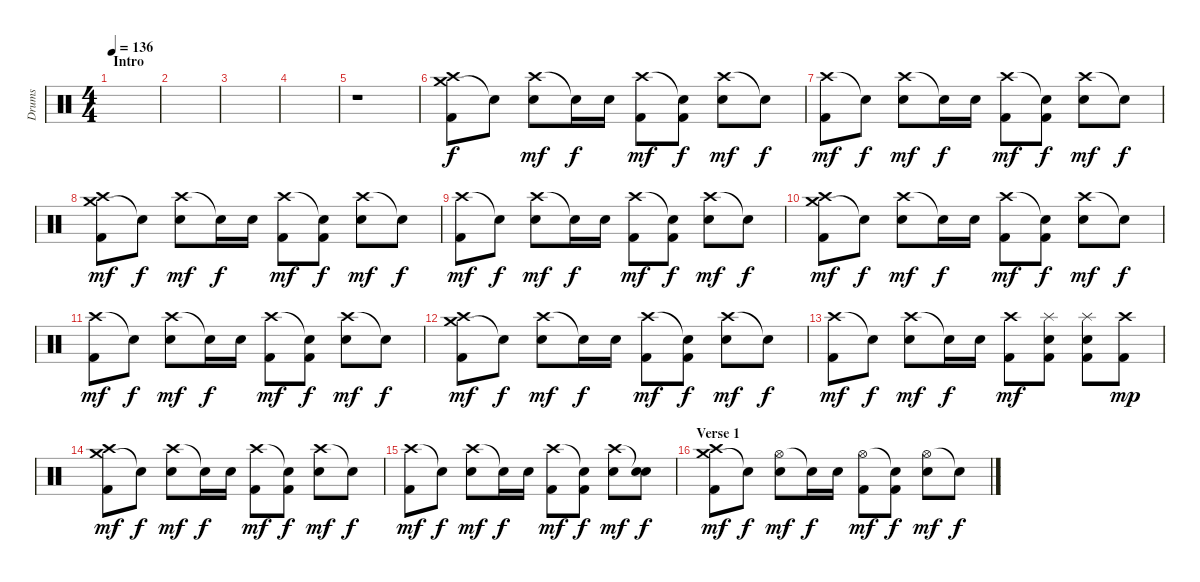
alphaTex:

\track ("Drums" "Drums") {instrument percussion}
\staff {score}
\articulation defaults
\ts (4 4)
\section ("" "Intro")
\tempo 136
\clef neutral
\ks c
|
|
|
|
r.1 |
("Crash medium (hit)" "Crash high (hit)" "Kick (hit) 2").8 "Snare (hit)"{t}.8{dy f} ("Crash high (hit)" "Electric Snare (hit)").8{dy mf} "Snare (hit)"{t}.16{dy f} "Electric Snare (hit)".16 ("Crash high (hit)" "Kick (hit) 2").8{dy mf} ("Snare (hit)"{t} "Kick (hit) 2").8{dy f} ("Crash high (hit)" "Electric Snare (hit)").8{dy mf} "Snare (hit)"{t}.8{dy f} |
("Crash high (hit)" "Kick (hit) 2").8{dy mf} "Snare (hit)"{t}.8{dy f} ("Crash high (hit)" "Electric Snare (hit)").8{dy mf} "Snare (hit)"{t}.16{dy f} "Electric Snare (hit)".16 ("Crash high (hit)" "Kick (hit) 2").8{dy mf} ("Snare (hit)"{t} "Kick (hit) 2").8{dy f} ("Crash high (hit)" "Electric Snare (hit)").8{dy mf} "Snare (hit)"{t}.8{dy f} |
("Crash medium (hit)" "Crash high (hit)" "Kick (hit) 2").8{dy mf} "Snare (hit)"{t}.8{dy f} ("Crash high (hit)" "Electric Snare (hit)").8{dy mf} "Snare (hit)"{t}.16{dy f} "Electric Snare (hit)".16 ("Crash high (hit)" "Kick (hit) 2").8{dy mf} ("Snare (hit)"{t} "Kick (hit) 2").8{dy f} ("Crash high (hit)" "Electric Snare (hit)").8{dy mf} "Snare (hit)"{t}.8{dy f} |
("Crash high (hit)" "Kick (hit) 2").8{dy mf} "Snare (hit)"{t}.8{dy f} ("Crash high (hit)" "Electric Snare (hit)").8{dy mf} "Snare (hit)"{t}.16{dy f} "Electric Snare (hit)".16 ("Crash high (hit)" "Kick (hit) 2").8{dy mf} ("Snare (hit)"{t} "Kick (hit) 2").8{dy f} ("Crash high (hit)" "Electric Snare (hit)").8{dy mf} "Snare (hit)"{t}.8{dy f} |
("Crash medium (hit)" "Crash high (hit)" "Kick (hit) 2").8{dy mf} "Snare (hit)"{t}.8{dy f} ("Crash high (hit)" "Electric Snare (hit)").8{dy mf} "Snare (hit)"{t}.16{dy f} "Electric Snare (hit)".16 ("Crash high (hit)" "Kick (hit) 2").8{dy mf} ("Snare (hit)"{t} "Kick (hit) 2").8{dy f} ("Crash high (hit)" "Electric Snare (hit)").8{dy mf} "Snare (hit)"{t}.8{dy f} |
("Crash high (hit)" "Kick (hit) 2").8{dy mf} "Snare (hit)"{t}.8{dy f} ("Crash high (hit)" "Electric Snare (hit)").8{dy mf} "Snare (hit)"{t}.16{dy f} "Electric Snare (hit)".16 ("Crash high (hit)" "Kick (hit) 2").8{dy mf} ("Snare (hit)"{t} "Kick (hit) 2").8{dy f} ("Crash high (hit)" "Electric Snare (hit)").8{dy mf} "Snare (hit)"{t}.8{dy f} |
("Crash medium (hit)" "Crash high (hit)" "Kick (hit) 2").8{dy mf} "Snare (hit)"{t}.8{dy f} ("Crash high (hit)" "Electric Snare (hit)").8{dy mf} "Snare (hit)"{t}.16{dy f} "Electric Snare (hit)".16 ("Crash high (hit)" "Kick (hit) 2").8{dy mf} ("Snare (hit)"{t} "Kick (hit) 2").8{dy f} ("Crash high (hit)" "Electric Snare (hit)").8{dy mf} "Snare (hit)"{t}.8{dy f} |
("Crash high (hit)" "Kick (hit) 2").8{dy mf} "Snare (hit)"{t}.8{dy f} ("Crash high (hit)" "Electric Snare (hit)").8{dy mf} "Snare (hit)"{t}.16{dy f} "Electric Snare (hit)".16 ("Crash high (hit)" "Kick (hit) 2").8{dy mf} ("Splash (hit)" "Electric Snare (hit)" "Kick (hit) 2").8 ("Splash (hit)" "Electric Snare (hit)" "Kick (hit) 2").8 ("Crash high (hit)" "Kick (hit) 2").8{dy mp} |
("Crash medium (hit)" "Crash high (hit)" "Kick (hit) 2").8{dy mf} "Snare (hit)"{t}.8{dy f} ("Crash high (hit)" "Electric Snare (hit)").8{dy mf} "Snare (hit)"{t}.16{dy f} "Electric Snare (hit)".16 ("Crash high (hit)" "Kick (hit) 2").8{dy mf} ("Snare (hit)"{t} "Kick (hit) 2").8{dy f} ("Crash high (hit)" "Electric Snare (hit)").8{dy mf} "Snare (hit)"{t}.8{dy f} |
("Crash high (hit)" "Kick (hit) 2").8{dy mf} "Snare (hit)"{t}.8{dy f} ("Crash high (hit)" "Electric Snare (hit)").8{dy mf} "Snare (hit)"{t}.16{dy f} "Electric Snare (hit)".16 ("Crash high (hit)" "Kick (hit) 2").8{dy mf} ("Snare (hit)"{t} "Kick (hit) 2").8{dy f} ("Crash high (hit)" "Electric Snare (hit)").8{dy mf} ("Snare (hit)"{t} "Electric Snare (hit)").8{dy f} |
\section ("" "Verse 1")
("Crash medium (hit)" "Crash high (hit)" "Kick (hit) 2").8{dy mf} "Snare (hit)"{t}.8{dy f} ("Hi-Hat (open)" "Electric Snare (hit)").8{dy mf} "Snare (hit)"{t}.16{dy f} "Electric Snare (hit)".16 ("Hi-Hat (open)" "Kick (hit) 2").8{dy mf} ("Snare (hit)"{t} "Kick (hit) 2").8{dy f} ("Hi-Hat (open)" "Electric Snare (hit)").8{dy mf} "Snare (hit)"{t}.8{dy f}
